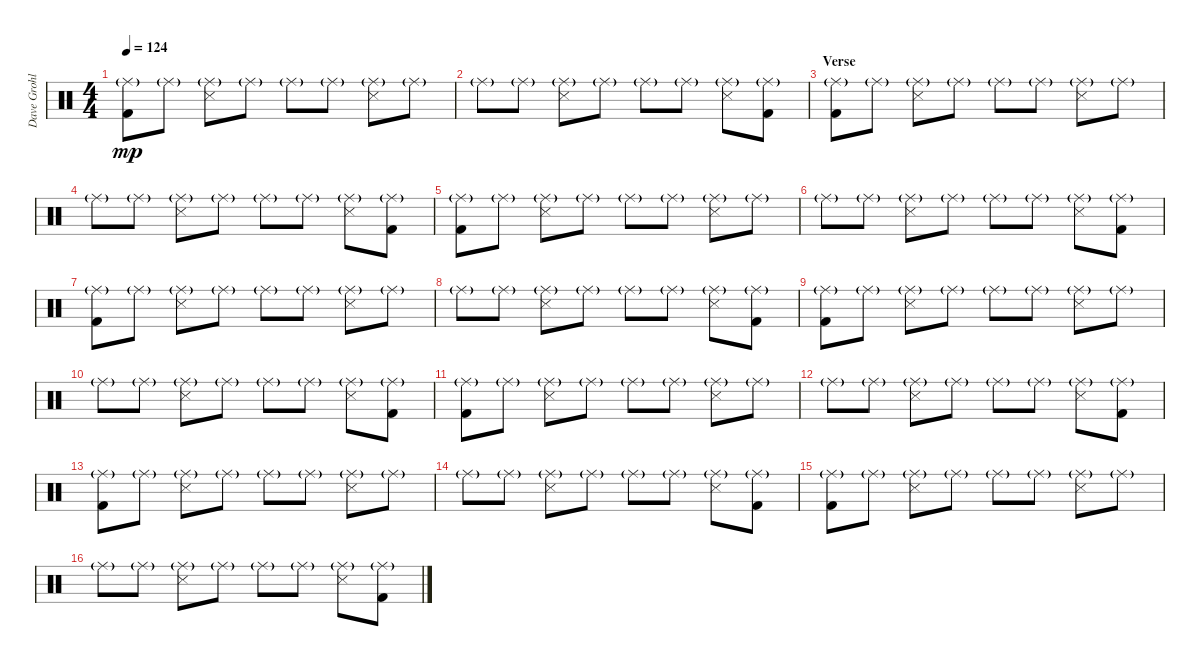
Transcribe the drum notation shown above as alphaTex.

\track ("Dave Grohl" "Dave Grohl") {instrument percussion}
\staff {score}
\articulation defaults
\ts (4 4)
\tempo 124
\clef neutral
\ks c
("Ride (middle)"{g} "Kick (hit) 2").8{dy mp} "Ride (middle)"{g}.8 ("Ride (middle)"{g} "Snare (side stick) 3").8 "Ride (middle)"{g}.8 "Ride (middle)"{g}.8 "Ride (middle)"{g}.8 ("Ride (middle)"{g} "Snare (side stick) 3").8 "Ride (middle)"{g}.8 |
"Ride (middle)"{g}.8 "Ride (middle)"{g}.8 ("Ride (middle)"{g} "Snare (side stick) 3").8 "Ride (middle)"{g}.8 "Ride (middle)"{g}.8 "Ride (middle)"{g}.8 ("Ride (middle)"{g} "Snare (side stick) 3").8 ("Ride (middle)"{g} "Kick (hit) 2").8 |
\section ("" "Verse")
("Ride (middle)"{g} "Kick (hit) 2").8 "Ride (middle)"{g}.8 ("Ride (middle)"{g} "Snare (side stick) 3").8 "Ride (middle)"{g}.8 "Ride (middle)"{g}.8 "Ride (middle)"{g}.8 ("Ride (middle)"{g} "Snare (side stick) 3").8 "Ride (middle)"{g}.8 |
"Ride (middle)"{g}.8 "Ride (middle)"{g}.8 ("Ride (middle)"{g} "Snare (side stick) 3").8 "Ride (middle)"{g}.8 "Ride (middle)"{g}.8 "Ride (middle)"{g}.8 ("Ride (middle)"{g} "Snare (side stick) 3").8 ("Ride (middle)"{g} "Kick (hit) 2").8 |
("Ride (middle)"{g} "Kick (hit) 2").8 "Ride (middle)"{g}.8 ("Ride (middle)"{g} "Snare (side stick) 3").8 "Ride (middle)"{g}.8 "Ride (middle)"{g}.8 "Ride (middle)"{g}.8 ("Ride (middle)"{g} "Snare (side stick) 3").8 "Ride (middle)"{g}.8 |
"Ride (middle)"{g}.8 "Ride (middle)"{g}.8 ("Ride (middle)"{g} "Snare (side stick) 3").8 "Ride (middle)"{g}.8 "Ride (middle)"{g}.8 "Ride (middle)"{g}.8 ("Ride (middle)"{g} "Snare (side stick) 3").8 ("Ride (middle)"{g} "Kick (hit) 2").8 |
("Ride (middle)"{g} "Kick (hit) 2").8 "Ride (middle)"{g}.8 ("Ride (middle)"{g} "Snare (side stick) 3").8 "Ride (middle)"{g}.8 "Ride (middle)"{g}.8 "Ride (middle)"{g}.8 ("Ride (middle)"{g} "Snare (side stick) 3").8 "Ride (middle)"{g}.8 |
"Ride (middle)"{g}.8 "Ride (middle)"{g}.8 ("Ride (middle)"{g} "Snare (side stick) 3").8 "Ride (middle)"{g}.8 "Ride (middle)"{g}.8 "Ride (middle)"{g}.8 ("Ride (middle)"{g} "Snare (side stick) 3").8 ("Ride (middle)"{g} "Kick (hit) 2").8 |
("Ride (middle)"{g} "Kick (hit) 2").8 "Ride (middle)"{g}.8 ("Ride (middle)"{g} "Snare (side stick) 3").8 "Ride (middle)"{g}.8 "Ride (middle)"{g}.8 "Ride (middle)"{g}.8 ("Ride (middle)"{g} "Snare (side stick) 3").8 "Ride (middle)"{g}.8 |
"Ride (middle)"{g}.8 "Ride (middle)"{g}.8 ("Ride (middle)"{g} "Snare (side stick) 3").8 "Ride (middle)"{g}.8 "Ride (middle)"{g}.8 "Ride (middle)"{g}.8 ("Ride (middle)"{g} "Snare (side stick) 3").8 ("Ride (middle)"{g} "Kick (hit) 2").8 |
("Ride (middle)"{g} "Kick (hit) 2").8 "Ride (middle)"{g}.8 ("Ride (middle)"{g} "Snare (side stick) 3").8 "Ride (middle)"{g}.8 "Ride (middle)"{g}.8 "Ride (middle)"{g}.8 ("Ride (middle)"{g} "Snare (side stick) 3").8 "Ride (middle)"{g}.8 |
"Ride (middle)"{g}.8 "Ride (middle)"{g}.8 ("Ride (middle)"{g} "Snare (side stick) 3").8 "Ride (middle)"{g}.8 "Ride (middle)"{g}.8 "Ride (middle)"{g}.8 ("Ride (middle)"{g} "Snare (side stick) 3").8 ("Ride (middle)"{g} "Kick (hit) 2").8 |
("Ride (middle)"{g} "Kick (hit) 2").8 "Ride (middle)"{g}.8 ("Ride (middle)"{g} "Snare (side stick) 3").8 "Ride (middle)"{g}.8 "Ride (middle)"{g}.8 "Ride (middle)"{g}.8 ("Ride (middle)"{g} "Snare (side stick) 3").8 "Ride (middle)"{g}.8 |
"Ride (middle)"{g}.8 "Ride (middle)"{g}.8 ("Ride (middle)"{g} "Snare (side stick) 3").8 "Ride (middle)"{g}.8 "Ride (middle)"{g}.8 "Ride (middle)"{g}.8 ("Ride (middle)"{g} "Snare (side stick) 3").8 ("Ride (middle)"{g} "Kick (hit) 2").8 |
("Ride (middle)"{g} "Kick (hit) 2").8 "Ride (middle)"{g}.8 ("Ride (middle)"{g} "Snare (side stick) 3").8 "Ride (middle)"{g}.8 "Ride (middle)"{g}.8 "Ride (middle)"{g}.8 ("Ride (middle)"{g} "Snare (side stick) 3").8 "Ride (middle)"{g}.8 |
"Ride (middle)"{g}.8 "Ride (middle)"{g}.8 ("Ride (middle)"{g} "Snare (side stick) 3").8 "Ride (middle)"{g}.8 "Ride (middle)"{g}.8 "Ride (middle)"{g}.8 ("Ride (middle)"{g} "Snare (side stick) 3").8 ("Ride (middle)"{g} "Kick (hit) 2").8
